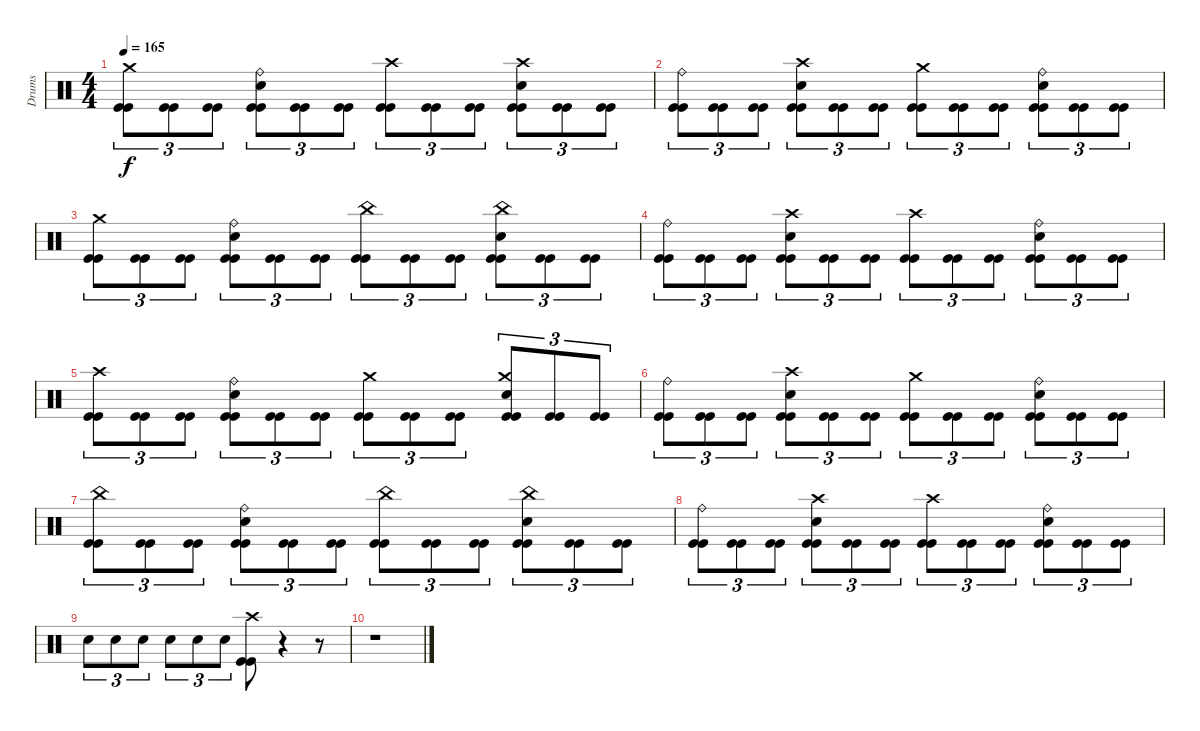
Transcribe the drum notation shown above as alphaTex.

\track ("Drums" "Drums") {instrument percussion}
\staff {score}
\articulation defaults
\ts (4 4)
\tempo 165
\clef neutral
\ks c
("Kick (hit)" "Kick (hit)" "Crash medium (hit)").8{tu (3 2) dy f} ("Kick (hit)" "Kick (hit)").8{tu (3 2)} ("Kick (hit)" "Kick (hit)").8{tu (3 2)} ("Kick (hit)" "Kick (hit)" "Snare (hit) 2" "Ride (bell)").8{tu (3 2)} ("Kick (hit)" "Kick (hit)").8{tu (3 2)} ("Kick (hit)" "Kick (hit)").8{tu (3 2)} ("Kick (hit)" "Kick (hit)" "Crash high (hit)").8{tu (3 2)} ("Kick (hit)" "Kick (hit)").8{tu (3 2)} ("Kick (hit)" "Kick (hit)").8{tu (3 2)} ("Kick (hit)" "Kick (hit)" "Snare (hit) 2" "Crash high (hit)").8{tu (3 2)} ("Kick (hit)" "Kick (hit)").8{tu (3 2)} ("Kick (hit)" "Kick (hit)").8{tu (3 2)} |
("Kick (hit)" "Kick (hit)" "Ride (bell)").8{tu (3 2)} ("Kick (hit)" "Kick (hit)").8{tu (3 2)} ("Kick (hit)" "Kick (hit)").8{tu (3 2)} ("Kick (hit)" "Kick (hit)" "Snare (hit) 2" "Crash high (hit)").8{tu (3 2)} ("Kick (hit)" "Kick (hit)").8{tu (3 2)} ("Kick (hit)" "Kick (hit)").8{tu (3 2)} ("Kick (hit)" "Kick (hit)" "Crash medium (hit)").8{tu (3 2)} ("Kick (hit)" "Kick (hit)").8{tu (3 2)} ("Kick (hit)" "Kick (hit)").8{tu (3 2)} ("Kick (hit)" "Kick (hit)" "Snare (hit) 2" "Ride (bell)").8{tu (3 2)} ("Kick (hit)" "Kick (hit)").8{tu (3 2)} ("Kick (hit)" "Kick (hit)").8{tu (3 2)} |
("Kick (hit)" "Kick (hit)" "Crash medium (hit)").8{tu (3 2)} ("Kick (hit)" "Kick (hit)").8{tu (3 2)} ("Kick (hit)" "Kick (hit)").8{tu (3 2)} ("Kick (hit)" "Kick (hit)" "Snare (hit) 2" "Ride (bell)").8{tu (3 2)} ("Kick (hit)" "Kick (hit)").8{tu (3 2)} ("Kick (hit)" "Kick (hit)").8{tu (3 2)} ("Kick (hit)" "Kick (hit)" "China (hit)").8{tu (3 2)} ("Kick (hit)" "Kick (hit)").8{tu (3 2)} ("Kick (hit)" "Kick (hit)").8{tu (3 2)} ("Kick (hit)" "Kick (hit)" "Snare (hit) 2" "China (hit)").8{tu (3 2)} ("Kick (hit)" "Kick (hit)").8{tu (3 2)} ("Kick (hit)" "Kick (hit)").8{tu (3 2)} |
("Kick (hit)" "Kick (hit)" "Ride (bell)").8{tu (3 2)} ("Kick (hit)" "Kick (hit)").8{tu (3 2)} ("Kick (hit)" "Kick (hit)").8{tu (3 2)} ("Kick (hit)" "Kick (hit)" "Snare (hit) 2" "Crash high (hit)").8{tu (3 2)} ("Kick (hit)" "Kick (hit)").8{tu (3 2)} ("Kick (hit)" "Kick (hit)").8{tu (3 2)} ("Kick (hit)" "Kick (hit)" "Crash high (hit)").8{tu (3 2)} ("Kick (hit)" "Kick (hit)").8{tu (3 2)} ("Kick (hit)" "Kick (hit)").8{tu (3 2)} ("Kick (hit)" "Kick (hit)" "Snare (hit) 2" "Ride (bell)").8{tu (3 2)} ("Kick (hit)" "Kick (hit)").8{tu (3 2)} ("Kick (hit)" "Kick (hit)").8{tu (3 2)} |
("Kick (hit)" "Kick (hit)" "Crash high (hit)").8{tu (3 2)} ("Kick (hit)" "Kick (hit)").8{tu (3 2)} ("Kick (hit)" "Kick (hit)").8{tu (3 2)} ("Kick (hit)" "Kick (hit)" "Snare (hit) 2" "Ride (bell)").8{tu (3 2)} ("Kick (hit)" "Kick (hit)").8{tu (3 2)} ("Kick (hit)" "Kick (hit)").8{tu (3 2)} ("Kick (hit)" "Kick (hit)" "Crash medium (hit)").8{tu (3 2)} ("Kick (hit)" "Kick (hit)").8{tu (3 2)} ("Kick (hit)" "Kick (hit)").8{tu (3 2)} ("Kick (hit)" "Kick (hit)" "Snare (hit) 2" "Crash medium (hit)").8{tu (3 2)} ("Kick (hit)" "Kick (hit)").8{tu (3 2)} ("Kick (hit)" "Kick (hit)").8{tu (3 2)} |
("Kick (hit)" "Kick (hit)" "Ride (bell)").8{tu (3 2)} ("Kick (hit)" "Kick (hit)").8{tu (3 2)} ("Kick (hit)" "Kick (hit)").8{tu (3 2)} ("Kick (hit)" "Kick (hit)" "Snare (hit) 2" "Crash high (hit)").8{tu (3 2)} ("Kick (hit)" "Kick (hit)").8{tu (3 2)} ("Kick (hit)" "Kick (hit)").8{tu (3 2)} ("Kick (hit)" "Kick (hit)" "Crash medium (hit)").8{tu (3 2)} ("Kick (hit)" "Kick (hit)").8{tu (3 2)} ("Kick (hit)" "Kick (hit)").8{tu (3 2)} ("Kick (hit)" "Kick (hit)" "Snare (hit) 2" "Ride (bell)").8{tu (3 2)} ("Kick (hit)" "Kick (hit)").8{tu (3 2)} ("Kick (hit)" "Kick (hit)").8{tu (3 2)} |
("Kick (hit)" "Kick (hit)" "China (hit)").8{tu (3 2)} ("Kick (hit)" "Kick (hit)").8{tu (3 2)} ("Kick (hit)" "Kick (hit)").8{tu (3 2)} ("Kick (hit)" "Kick (hit)" "Snare (hit) 2" "Ride (bell)").8{tu (3 2)} ("Kick (hit)" "Kick (hit)").8{tu (3 2)} ("Kick (hit)" "Kick (hit)").8{tu (3 2)} ("Kick (hit)" "Kick (hit)" "China (hit)").8{tu (3 2)} ("Kick (hit)" "Kick (hit)").8{tu (3 2)} ("Kick (hit)" "Kick (hit)").8{tu (3 2)} ("Kick (hit)" "Kick (hit)" "Snare (hit) 2" "China (hit)").8{tu (3 2)} ("Kick (hit)" "Kick (hit)").8{tu (3 2)} ("Kick (hit)" "Kick (hit)").8{tu (3 2)} |
("Kick (hit)" "Kick (hit)" "Ride (bell)").8{tu (3 2)} ("Kick (hit)" "Kick (hit)").8{tu (3 2)} ("Kick (hit)" "Kick (hit)").8{tu (3 2)} ("Kick (hit)" "Kick (hit)" "Snare (hit) 2" "Crash high (hit)").8{tu (3 2)} ("Kick (hit)" "Kick (hit)").8{tu (3 2)} ("Kick (hit)" "Kick (hit)").8{tu (3 2)} ("Kick (hit)" "Kick (hit)" "Crash high (hit)").8{tu (3 2)} ("Kick (hit)" "Kick (hit)").8{tu (3 2)} ("Kick (hit)" "Kick (hit)").8{tu (3 2)} ("Kick (hit)" "Kick (hit)" "Snare (hit) 2" "Ride (bell)").8{tu (3 2)} ("Kick (hit)" "Kick (hit)").8{tu (3 2)} ("Kick (hit)" "Kick (hit)").8{tu (3 2)} |
"Snare (hit) 2".8{tu (3 2)} "Snare (hit) 2".8{tu (3 2)} "Snare (hit) 2".8{tu (3 2)} "Snare (hit) 2".8{tu (3 2)} "Snare (hit) 2".8{tu (3 2)} "Snare (hit) 2".8{tu (3 2)} ("Kick (hit)" "Kick (hit)" "Crash high (hit)").8 r.4 r.8 |
r.1
